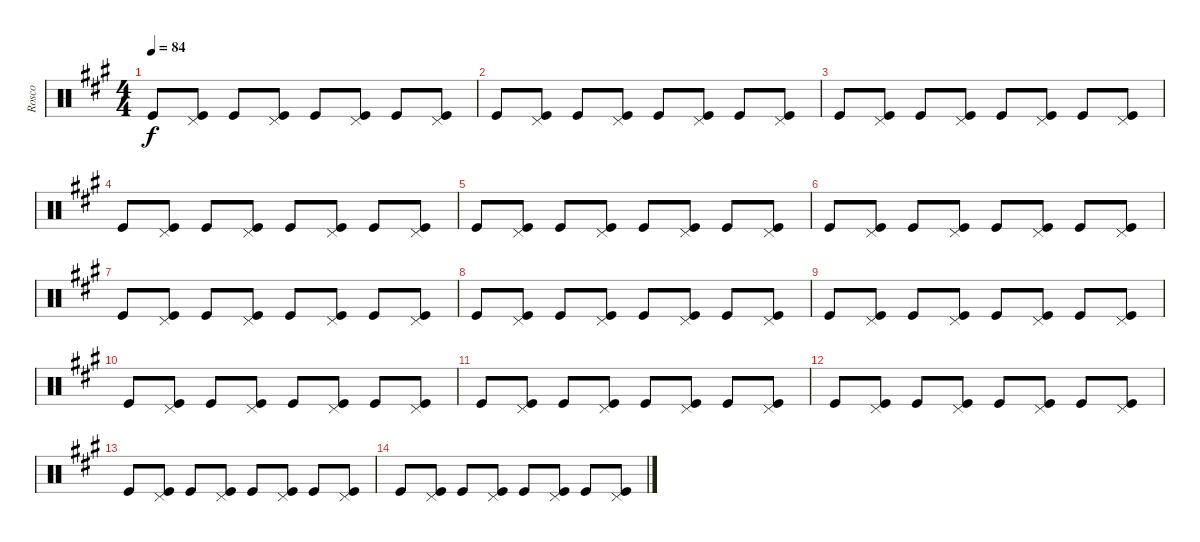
\track ("Rosco" "Rosco") {instrument percussion}
\staff {score}
\articulation defaults
\ts (4 4)
\tempo 84
\clef neutral
\ks a "Kick (hit)".8{dy f}
("Pedal Hi-Hat (hit)" "Kick (hit)").8 "Kick (hit)".8 ("Pedal Hi-Hat (hit)" "Kick (hit)").8 "Kick (hit)".8 ("Pedal Hi-Hat (hit)" "Kick (hit)").8 "Kick (hit)".8 ("Pedal Hi-Hat (hit)" "Kick (hit)").8 |
"Kick (hit)".8 ("Pedal Hi-Hat (hit)" "Kick (hit)").8 "Kick (hit)".8 ("Pedal Hi-Hat (hit)" "Kick (hit)").8 "Kick (hit)".8 ("Pedal Hi-Hat (hit)" "Kick (hit)").8 "Kick (hit)".8 ("Pedal Hi-Hat (hit)" "Kick (hit)").8 |
"Kick (hit)".8 ("Pedal Hi-Hat (hit)" "Kick (hit)").8 "Kick (hit)".8 ("Pedal Hi-Hat (hit)" "Kick (hit)").8 "Kick (hit)".8 ("Pedal Hi-Hat (hit)" "Kick (hit)").8 "Kick (hit)".8 ("Pedal Hi-Hat (hit)" "Kick (hit)").8 |
"Kick (hit)".8 ("Pedal Hi-Hat (hit)" "Kick (hit)").8 "Kick (hit)".8 ("Pedal Hi-Hat (hit)" "Kick (hit)").8 "Kick (hit)".8 ("Pedal Hi-Hat (hit)" "Kick (hit)").8 "Kick (hit)".8 ("Pedal Hi-Hat (hit)" "Kick (hit)").8 |
"Kick (hit)".8 ("Pedal Hi-Hat (hit)" "Kick (hit)").8 "Kick (hit)".8 ("Pedal Hi-Hat (hit)" "Kick (hit)").8 "Kick (hit)".8 ("Pedal Hi-Hat (hit)" "Kick (hit)").8 "Kick (hit)".8 ("Pedal Hi-Hat (hit)" "Kick (hit)").8 |
"Kick (hit)".8 ("Pedal Hi-Hat (hit)" "Kick (hit)").8 "Kick (hit)".8 ("Pedal Hi-Hat (hit)" "Kick (hit)").8 "Kick (hit)".8 ("Pedal Hi-Hat (hit)" "Kick (hit)").8 "Kick (hit)".8 ("Pedal Hi-Hat (hit)" "Kick (hit)").8 |
"Kick (hit)".8 ("Pedal Hi-Hat (hit)" "Kick (hit)").8 "Kick (hit)".8 ("Pedal Hi-Hat (hit)" "Kick (hit)").8 "Kick (hit)".8 ("Pedal Hi-Hat (hit)" "Kick (hit)").8 "Kick (hit)".8 ("Pedal Hi-Hat (hit)" "Kick (hit)").8 |
"Kick (hit)".8 ("Pedal Hi-Hat (hit)" "Kick (hit)").8 "Kick (hit)".8 ("Pedal Hi-Hat (hit)" "Kick (hit)").8 "Kick (hit)".8 ("Pedal Hi-Hat (hit)" "Kick (hit)").8 "Kick (hit)".8 ("Pedal Hi-Hat (hit)" "Kick (hit)").8 |
"Kick (hit)".8 ("Pedal Hi-Hat (hit)" "Kick (hit)").8 "Kick (hit)".8 ("Pedal Hi-Hat (hit)" "Kick (hit)").8 "Kick (hit)".8 ("Pedal Hi-Hat (hit)" "Kick (hit)").8 "Kick (hit)".8 ("Pedal Hi-Hat (hit)" "Kick (hit)").8 |
"Kick (hit)".8 ("Pedal Hi-Hat (hit)" "Kick (hit)").8 "Kick (hit)".8 ("Pedal Hi-Hat (hit)" "Kick (hit)").8 "Kick (hit)".8 ("Pedal Hi-Hat (hit)" "Kick (hit)").8 "Kick (hit)".8 ("Pedal Hi-Hat (hit)" "Kick (hit)").8 |
"Kick (hit)".8 ("Pedal Hi-Hat (hit)" "Kick (hit)").8 "Kick (hit)".8 ("Pedal Hi-Hat (hit)" "Kick (hit)").8 "Kick (hit)".8 ("Pedal Hi-Hat (hit)" "Kick (hit)").8 "Kick (hit)".8 ("Pedal Hi-Hat (hit)" "Kick (hit)").8 |
"Kick (hit)".8 ("Pedal Hi-Hat (hit)" "Kick (hit)").8 "Kick (hit)".8 ("Pedal Hi-Hat (hit)" "Kick (hit)").8 "Kick (hit)".8 ("Pedal Hi-Hat (hit)" "Kick (hit)").8 "Kick (hit)".8 ("Pedal Hi-Hat (hit)" "Kick (hit)").8 |
"Kick (hit)".8 ("Pedal Hi-Hat (hit)" "Kick (hit)").8 "Kick (hit)".8 ("Pedal Hi-Hat (hit)" "Kick (hit)").8 "Kick (hit)".8 ("Pedal Hi-Hat (hit)" "Kick (hit)").8 "Kick (hit)".8 ("Pedal Hi-Hat (hit)" "Kick (hit)").8 |
"Kick (hit)".8 ("Pedal Hi-Hat (hit)" "Kick (hit)").8 "Kick (hit)".8 ("Pedal Hi-Hat (hit)" "Kick (hit)").8 "Kick (hit)".8 ("Pedal Hi-Hat (hit)" "Kick (hit)").8 "Kick (hit)".8 ("Pedal Hi-Hat (hit)" "Kick (hit)").8
